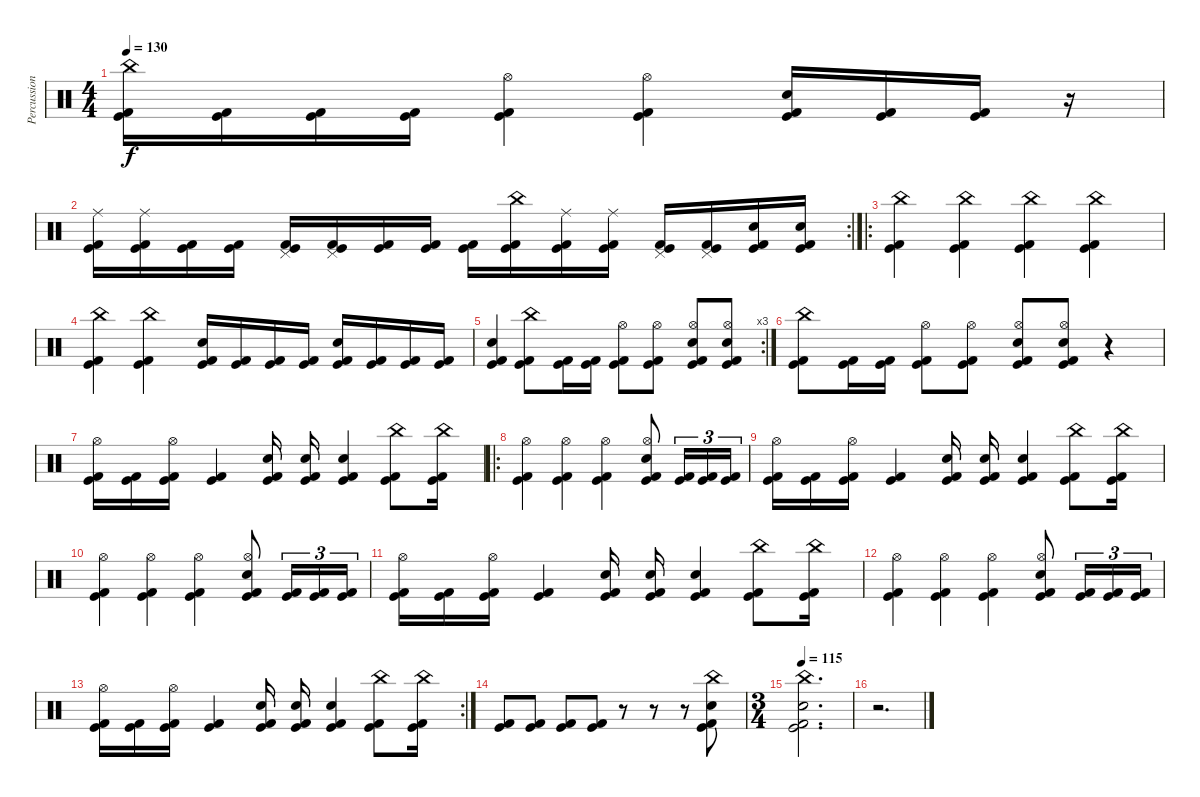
\track ("Percussion" "Percussion") {instrument percussion}
\staff {score}
\articulation defaults
\ts (4 4)
\tempo 130
\clef neutral
\ks c
("China (hit)" "Kick (hit) 2" "Kick (hit)").16{dy f} ("Kick (hit) 2" "Kick (hit)").16 ("Kick (hit) 2" "Kick (hit)").16 ("Kick (hit) 2" "Kick (hit)").16 ("Hi-Hat (open)" "Kick (hit) 2" "Kick (hit)").4 ("Hi-Hat (open)" "Kick (hit) 2" "Kick (hit)").4 ("Snare (hit) 2" "Kick (hit) 2" "Kick (hit)").16 ("Kick (hit) 2" "Kick (hit)").16 ("Kick (hit) 2" "Kick (hit)").16 r.16 |
\rc 2
("Ride (middle)" "Kick (hit)" "Kick (hit) 2").16 ("Ride (middle)" "Kick (hit)" "Kick (hit) 2").16 ("Kick (hit)" "Kick (hit) 2").16 ("Kick (hit)" "Kick (hit) 2").16 ("Pedal Hi-Hat (hit)" "Kick (hit)" "Kick (hit) 2").16 ("Pedal Hi-Hat (hit)" "Kick (hit)" "Kick (hit) 2").16 ("Kick (hit)" "Kick (hit) 2").16 ("Kick (hit)" "Kick (hit) 2").16 ("Kick (hit)" "Kick (hit) 2").16 ("China (hit)" "Kick (hit)" "Kick (hit) 2").16 ("Ride (middle)" "Kick (hit)" "Kick (hit) 2").16 ("Ride (middle)" "Kick (hit)" "Kick (hit) 2").16 ("Pedal Hi-Hat (hit)" "Kick (hit)" "Kick (hit) 2").16 ("Pedal Hi-Hat (hit)" "Kick (hit)" "Kick (hit) 2").16 ("Snare (hit) 2" "Kick (hit)" "Kick (hit) 2").16 ("Snare (hit) 2" "Kick (hit)" "Kick (hit) 2").16 |
\ro
("China (hit)" "Kick (hit)" "Kick (hit) 2").4 ("China (hit)" "Kick (hit)" "Kick (hit) 2").4 ("China (hit)" "Kick (hit)" "Kick (hit) 2").4 ("China (hit)" "Kick (hit)" "Kick (hit) 2").4 |
("China (hit)" "Kick (hit)" "Kick (hit) 2").4 ("China (hit)" "Kick (hit)" "Kick (hit) 2").4 ("Snare (hit) 2" "Kick (hit)" "Kick (hit) 2").16 ("Kick (hit)" "Kick (hit) 2").16 ("Kick (hit)" "Kick (hit) 2").16 ("Kick (hit)" "Kick (hit) 2").16 ("Snare (hit) 2" "Kick (hit)" "Kick (hit) 2").16 ("Kick (hit)" "Kick (hit) 2").16 ("Kick (hit)" "Kick (hit) 2").16 ("Kick (hit)" "Kick (hit) 2").16 |
\rc 3
("Snare (hit) 2" "Kick (hit)" "Kick (hit) 2").4 ("China (hit)" "Kick (hit) 2" "Kick (hit)").8 ("Kick (hit)" "Kick (hit) 2").16 ("Kick (hit)" "Kick (hit) 2").16 ("Hi-Hat (open)" "Kick (hit) 2" "Kick (hit)").8 ("Hi-Hat (open)" "Kick (hit)" "Kick (hit) 2").8 ("Snare (hit) 2" "Hi-Hat (open)" "Kick (hit)" "Kick (hit) 2").8 ("Snare (hit) 2" "Hi-Hat (open)" "Kick (hit)" "Kick (hit) 2").8 |
("China (hit)" "Kick (hit) 2" "Kick (hit)").8 ("Kick (hit)" "Kick (hit) 2").16 ("Kick (hit)" "Kick (hit) 2").16 ("Hi-Hat (open)" "Kick (hit) 2" "Kick (hit)").8 ("Hi-Hat (open)" "Kick (hit)" "Kick (hit) 2").8 ("Snare (hit) 2" "Hi-Hat (open)" "Kick (hit)" "Kick (hit) 2").8 ("Snare (hit) 2" "Hi-Hat (open)" "Kick (hit)" "Kick (hit) 2").8 r.4 |
("Hi-Hat (open)" "Kick (hit)" "Kick (hit) 2").16 ("Kick (hit)" "Kick (hit) 2").16 ("Hi-Hat (open)" "Kick (hit)" "Kick (hit) 2").16 ("Kick (hit)" "Kick (hit) 2").4 ("Snare (hit) 2" "Kick (hit)" "Kick (hit) 2").16 ("Snare (hit) 2" "Kick (hit)" "Kick (hit) 2").16 ("Snare (hit) 2" "Kick (hit)" "Kick (hit) 2").4 ("China (hit)" "Kick (hit)" "Kick (hit) 2").8 ("China (hit)" "Kick (hit)" "Kick (hit) 2").16 |
\ro
("Hi-Hat (open)" "Kick (hit)" "Kick (hit) 2").4 ("Hi-Hat (open)" "Kick (hit)" "Kick (hit) 2").4 ("Hi-Hat (open)" "Kick (hit)" "Kick (hit) 2").4 ("Snare (hit) 2" "Kick (hit) 2" "Hi-Hat (open)" "Kick (hit)").8 ("Kick (hit) 2" "Kick (hit)").16{tu (3 2)} ("Kick (hit) 2" "Kick (hit)").16{tu (3 2)} ("Kick (hit) 2" "Kick (hit)").16{tu (3 2)} |
("Hi-Hat (open)" "Kick (hit)" "Kick (hit) 2").16 ("Kick (hit)" "Kick (hit) 2").16 ("Hi-Hat (open)" "Kick (hit)" "Kick (hit) 2").16 ("Kick (hit)" "Kick (hit) 2").4 ("Snare (hit) 2" "Kick (hit)" "Kick (hit) 2").16 ("Snare (hit) 2" "Kick (hit)" "Kick (hit) 2").16 ("Snare (hit) 2" "Kick (hit)" "Kick (hit) 2").4 ("China (hit)" "Kick (hit)" "Kick (hit) 2").8 ("China (hit)" "Kick (hit)" "Kick (hit) 2").16 |
("Hi-Hat (open)" "Kick (hit)" "Kick (hit) 2").4 ("Hi-Hat (open)" "Kick (hit)" "Kick (hit) 2").4 ("Hi-Hat (open)" "Kick (hit)" "Kick (hit) 2").4 ("Snare (hit) 2" "Kick (hit) 2" "Hi-Hat (open)" "Kick (hit)").8 ("Kick (hit) 2" "Kick (hit)").16{tu (3 2)} ("Kick (hit) 2" "Kick (hit)").16{tu (3 2)} ("Kick (hit) 2" "Kick (hit)").16{tu (3 2)} |
("Hi-Hat (open)" "Kick (hit)" "Kick (hit) 2").16 ("Kick (hit)" "Kick (hit) 2").16 ("Hi-Hat (open)" "Kick (hit)" "Kick (hit) 2").16 ("Kick (hit)" "Kick (hit) 2").4 ("Snare (hit) 2" "Kick (hit)" "Kick (hit) 2").16 ("Snare (hit) 2" "Kick (hit)" "Kick (hit) 2").16 ("Snare (hit) 2" "Kick (hit)" "Kick (hit) 2").4 ("China (hit)" "Kick (hit)" "Kick (hit) 2").8 ("China (hit)" "Kick (hit)" "Kick (hit) 2").16 |
("Hi-Hat (open)" "Kick (hit)" "Kick (hit) 2").4 ("Hi-Hat (open)" "Kick (hit)" "Kick (hit) 2").4 ("Hi-Hat (open)" "Kick (hit)" "Kick (hit) 2").4 ("Snare (hit) 2" "Kick (hit) 2" "Hi-Hat (open)" "Kick (hit)").8 ("Kick (hit) 2" "Kick (hit)").16{tu (3 2)} ("Kick (hit) 2" "Kick (hit)").16{tu (3 2)} ("Kick (hit) 2" "Kick (hit)").16{tu (3 2)} |
\rc 2
("Hi-Hat (open)" "Kick (hit)" "Kick (hit) 2").16 ("Kick (hit)" "Kick (hit) 2").16 ("Hi-Hat (open)" "Kick (hit)" "Kick (hit) 2").16 ("Kick (hit)" "Kick (hit) 2").4 ("Snare (hit) 2" "Kick (hit)" "Kick (hit) 2").16 ("Snare (hit) 2" "Kick (hit)" "Kick (hit) 2").16 ("Snare (hit) 2" "Kick (hit)" "Kick (hit) 2").4 ("China (hit)" "Kick (hit)" "Kick (hit) 2").8 ("China (hit)" "Kick (hit)" "Kick (hit) 2").16 |
("Kick (hit) 2" "Kick (hit)").8 ("Kick (hit)" "Kick (hit) 2").8 ("Kick (hit)" "Kick (hit) 2").8 ("Kick (hit)" "Kick (hit) 2").8 r.8 r.8 r.8 ("Snare (hit) 2" "China (hit)" "Kick (hit) 2" "Kick (hit)").8 |
\ts (3 4)
\tempo 115
("China (hit)" "Snare (hit) 2" "Kick (hit)" "Kick (hit) 2").2{d} |
r.2{d}
